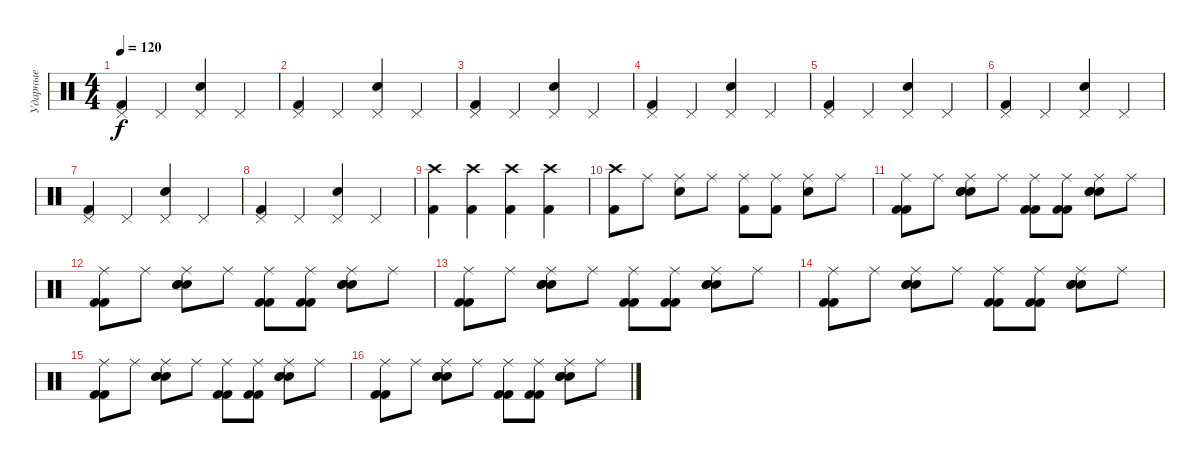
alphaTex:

\track ("Ударные" "Ударные") {instrument percussion}
\staff {score}
\articulation defaults
\ts (4 4)
\tempo 120
\clef neutral
\ks c
("Pedal Hi-Hat (hit)" "Kick (hit) 2").4{dy f} "Pedal Hi-Hat (hit)".4 ("Pedal Hi-Hat (hit)" "Snare (hit) 2").4 "Pedal Hi-Hat (hit)".4 |
("Pedal Hi-Hat (hit)" "Kick (hit) 2").4 "Pedal Hi-Hat (hit)".4 ("Pedal Hi-Hat (hit)" "Snare (hit) 2").4 "Pedal Hi-Hat (hit)".4 |
("Pedal Hi-Hat (hit)" "Kick (hit) 2").4 "Pedal Hi-Hat (hit)".4 ("Pedal Hi-Hat (hit)" "Snare (hit) 2").4 "Pedal Hi-Hat (hit)".4 |
("Pedal Hi-Hat (hit)" "Kick (hit) 2").4 "Pedal Hi-Hat (hit)".4 ("Pedal Hi-Hat (hit)" "Snare (hit) 2").4 "Pedal Hi-Hat (hit)".4 |
("Pedal Hi-Hat (hit)" "Kick (hit) 2").4 "Pedal Hi-Hat (hit)".4 ("Pedal Hi-Hat (hit)" "Snare (hit) 2").4 "Pedal Hi-Hat (hit)".4 |
("Pedal Hi-Hat (hit)" "Kick (hit) 2").4 "Pedal Hi-Hat (hit)".4 ("Pedal Hi-Hat (hit)" "Snare (hit) 2").4 "Pedal Hi-Hat (hit)".4 |
("Pedal Hi-Hat (hit)" "Kick (hit) 2").4 "Pedal Hi-Hat (hit)".4 ("Pedal Hi-Hat (hit)" "Snare (hit) 2").4 "Pedal Hi-Hat (hit)".4 |
("Pedal Hi-Hat (hit)" "Kick (hit) 2").4 "Pedal Hi-Hat (hit)".4 ("Pedal Hi-Hat (hit)" "Snare (hit) 2").4 "Pedal Hi-Hat (hit)".4 |
("Crash high (hit)" "Kick (hit) 2").4 ("Crash high (hit)" "Kick (hit) 2").4 ("Crash high (hit)" "Kick (hit) 2").4 ("Crash high (hit)" "Kick (hit) 2").4 |
("Crash high (hit)" "Kick (hit) 2").8 "Ride (middle)".8 ("Ride (middle)" "Snare (hit) 2").8 "Ride (middle)".8 ("Ride (middle)" "Kick (hit) 2").8 ("Ride (middle)" "Kick (hit) 2").8 ("Ride (middle)" "Snare (hit) 2").8 "Ride (middle)".8 |
("Ride (middle)" "Kick (hit) 2" "Kick (hit) 2").8 "Ride (middle)".8 ("Ride (middle)" "Snare (hit) 2" "Snare (hit) 2" "Snare (hit) 2").8 "Ride (middle)".8 ("Ride (middle)" "Kick (hit) 2" "Kick (hit) 2").8 ("Ride (middle)" "Kick (hit) 2" "Kick (hit) 2").8 ("Ride (middle)" "Snare (hit) 2" "Snare (hit) 2" "Snare (hit) 2").8 "Ride (middle)".8 |
("Ride (middle)" "Kick (hit) 2" "Kick (hit) 2").8 "Ride (middle)".8 ("Ride (middle)" "Snare (hit) 2" "Snare (hit) 2" "Snare (hit) 2").8 "Ride (middle)".8 ("Ride (middle)" "Kick (hit) 2" "Kick (hit) 2").8 ("Ride (middle)" "Kick (hit) 2" "Kick (hit) 2").8 ("Ride (middle)" "Snare (hit) 2" "Snare (hit) 2" "Snare (hit) 2").8 "Ride (middle)".8 |
("Ride (middle)" "Kick (hit) 2" "Kick (hit) 2").8 "Ride (middle)".8 ("Ride (middle)" "Snare (hit) 2" "Snare (hit) 2" "Snare (hit) 2").8 "Ride (middle)".8 ("Ride (middle)" "Kick (hit) 2" "Kick (hit) 2").8 ("Ride (middle)" "Kick (hit) 2" "Kick (hit) 2").8 ("Ride (middle)" "Snare (hit) 2" "Snare (hit) 2" "Snare (hit) 2").8 "Ride (middle)".8 |
("Ride (middle)" "Kick (hit) 2" "Kick (hit) 2").8 "Ride (middle)".8 ("Ride (middle)" "Snare (hit) 2" "Snare (hit) 2" "Snare (hit) 2").8 "Ride (middle)".8 ("Ride (middle)" "Kick (hit) 2" "Kick (hit) 2").8 ("Ride (middle)" "Kick (hit) 2" "Kick (hit) 2").8 ("Ride (middle)" "Snare (hit) 2" "Snare (hit) 2" "Snare (hit) 2").8 "Ride (middle)".8 |
("Ride (middle)" "Kick (hit) 2" "Kick (hit) 2").8 "Ride (middle)".8 ("Ride (middle)" "Snare (hit) 2" "Snare (hit) 2" "Snare (hit) 2").8 "Ride (middle)".8 ("Ride (middle)" "Kick (hit) 2" "Kick (hit) 2").8 ("Ride (middle)" "Kick (hit) 2" "Kick (hit) 2").8 ("Ride (middle)" "Snare (hit) 2" "Snare (hit) 2" "Snare (hit) 2").8 "Ride (middle)".8 |
("Ride (middle)" "Kick (hit) 2" "Kick (hit) 2").8 "Ride (middle)".8 ("Ride (middle)" "Snare (hit) 2" "Snare (hit) 2" "Snare (hit) 2").8 "Ride (middle)".8 ("Ride (middle)" "Kick (hit) 2" "Kick (hit) 2").8 ("Ride (middle)" "Kick (hit) 2" "Kick (hit) 2").8 ("Ride (middle)" "Snare (hit) 2" "Snare (hit) 2" "Snare (hit) 2").8 "Ride (middle)".8
